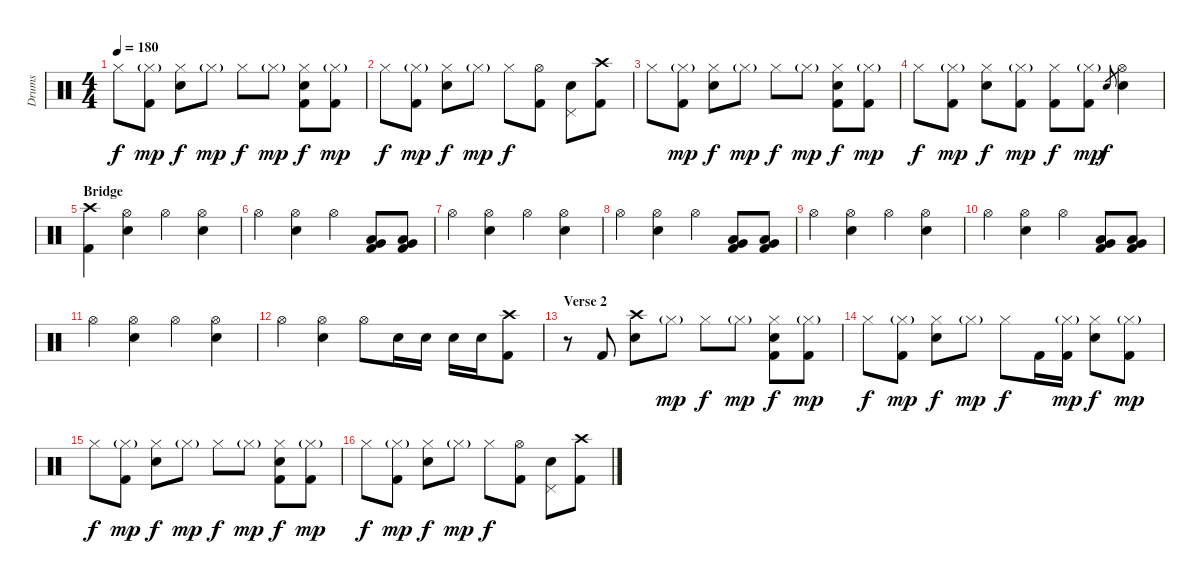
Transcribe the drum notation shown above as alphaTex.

\track ("Drums" "Drums") {instrument percussion}
\staff {score}
\articulation defaults
\ts (4 4)
\tempo 180
\clef neutral
\ks c "Hi-Hat (closed)".8{dy f}
("Hi-Hat (closed)"{g} "Kick (hit) 2").8{dy mp} ("Hi-Hat (closed)" "Snare (hit) 2").8{dy f} "Hi-Hat (closed)"{g}.8{dy mp} "Hi-Hat (closed)".8{dy f} "Hi-Hat (closed)"{g}.8{dy mp} ("Hi-Hat (closed)" "Snare (hit) 2" "Kick (hit) 2").8{dy f} ("Hi-Hat (closed)"{g} "Kick (hit) 2").8{dy mp} |
"Hi-Hat (closed)".8{dy f} ("Hi-Hat (closed)"{g} "Kick (hit) 2").8{dy mp} ("Hi-Hat (closed)" "Snare (hit) 2").8{dy f} "Hi-Hat (closed)"{g}.8{dy mp} "Hi-Hat (closed)".8{dy f} ("Hi-Hat (open)" "Kick (hit) 2").8 ("Pedal Hi-Hat (hit)" "Snare (hit) 2").8 ("Crash high (hit)" "Kick (hit) 2").8 |
"Hi-Hat (closed)".8 ("Hi-Hat (closed)"{g} "Kick (hit) 2").8{dy mp} ("Hi-Hat (closed)" "Snare (hit) 2").8{dy f} "Hi-Hat (closed)"{g}.8{dy mp} "Hi-Hat (closed)".8{dy f} "Hi-Hat (closed)"{g}.8{dy mp} ("Hi-Hat (closed)" "Snare (hit) 2" "Kick (hit) 2").8{dy f} ("Hi-Hat (closed)"{g} "Kick (hit) 2").8{dy mp} |
"Hi-Hat (closed)".8{dy f} ("Hi-Hat (closed)"{g} "Kick (hit) 2").8{dy mp} ("Hi-Hat (closed)" "Snare (hit) 2").8{dy f} ("Hi-Hat (closed)"{g} "Kick (hit) 2").8{dy mp} ("Hi-Hat (closed)" "Kick (hit) 2").8{dy f} ("Hi-Hat (closed)"{g} "Kick (hit) 2").8{dy mp} "Snare (hit) 2".8{gr dy f} ("Hi-Hat (open)" "Snare (hit) 2").4 |
\section ("" "Bridge")
("Crash high (hit)" "Kick (hit) 2").4 ("Hi-Hat (open)" "Snare (hit) 2").4 "Hi-Hat (open)".4 ("Hi-Hat (open)" "Snare (hit) 2").4 |
"Hi-Hat (open)".4 ("Hi-Hat (open)" "Snare (hit) 2").4 "Hi-Hat (open)".4 ("Low Floor Tom (hit)" "Very Low Tom (hit)" "Kick (hit) 2").8 ("Low Floor Tom (hit)" "Very Low Tom (hit)" "Kick (hit) 2").8 |
"Hi-Hat (open)".4 ("Hi-Hat (open)" "Snare (hit) 2").4 "Hi-Hat (open)".4 ("Hi-Hat (open)" "Snare (hit) 2").4 |
"Hi-Hat (open)".4 ("Hi-Hat (open)" "Snare (hit) 2").4 "Hi-Hat (open)".4 ("Low Floor Tom (hit)" "Very Low Tom (hit)" "Kick (hit) 2").8 ("Low Floor Tom (hit)" "Very Low Tom (hit)" "Kick (hit) 2").8 |
"Hi-Hat (open)".4 ("Hi-Hat (open)" "Snare (hit) 2").4 "Hi-Hat (open)".4 ("Hi-Hat (open)" "Snare (hit) 2").4 |
"Hi-Hat (open)".4 ("Hi-Hat (open)" "Snare (hit) 2").4 "Hi-Hat (open)".4 ("Low Floor Tom (hit)" "Very Low Tom (hit)" "Kick (hit) 2").8 ("Low Floor Tom (hit)" "Very Low Tom (hit)" "Kick (hit) 2").8 |
"Hi-Hat (open)".4 ("Hi-Hat (open)" "Snare (hit) 2").4 "Hi-Hat (open)".4 ("Hi-Hat (open)" "Snare (hit) 2").4 |
"Hi-Hat (open)".4 ("Hi-Hat (open)" "Snare (hit) 2").4 "Hi-Hat (open)".8 "Snare (hit) 2".16 "Snare (hit) 2".16 "Snare (hit) 2".16 "Snare (hit) 2".16 ("Crash high (hit)" "Kick (hit) 2").8 |
\section ("" "Verse 2")
r.8 "Kick (hit) 2".8 ("Crash high (hit)" "Snare (hit) 2").8 "Hi-Hat (closed)"{g}.8{dy mp} "Hi-Hat (closed)".8{dy f} "Hi-Hat (closed)"{g}.8{dy mp} ("Hi-Hat (closed)" "Snare (hit) 2" "Kick (hit) 2").8{dy f} ("Hi-Hat (closed)"{g} "Kick (hit) 2").8{dy mp} |
"Hi-Hat (closed)".8{dy f} ("Hi-Hat (closed)"{g} "Kick (hit) 2").8{dy mp} ("Hi-Hat (closed)" "Snare (hit) 2").8{dy f} "Hi-Hat (closed)"{g}.8{dy mp} "Hi-Hat (closed)".8{dy f} "Kick (hit) 2".16 ("Hi-Hat (closed)"{g} "Kick (hit) 2").16{dy mp} ("Hi-Hat (closed)" "Snare (hit) 2").8{dy f} ("Hi-Hat (closed)"{g} "Kick (hit) 2").8{dy mp} |
"Hi-Hat (closed)".8{dy f} ("Hi-Hat (closed)"{g} "Kick (hit) 2").8{dy mp} ("Hi-Hat (closed)" "Snare (hit) 2").8{dy f} "Hi-Hat (closed)"{g}.8{dy mp} "Hi-Hat (closed)".8{dy f} "Hi-Hat (closed)"{g}.8{dy mp} ("Hi-Hat (closed)" "Snare (hit) 2" "Kick (hit) 2").8{dy f} ("Hi-Hat (closed)"{g} "Kick (hit) 2").8{dy mp} |
"Hi-Hat (closed)".8{dy f} ("Hi-Hat (closed)"{g} "Kick (hit) 2").8{dy mp} ("Hi-Hat (closed)" "Snare (hit) 2").8{dy f} "Hi-Hat (closed)"{g}.8{dy mp} "Hi-Hat (closed)".8{dy f} ("Hi-Hat (open)" "Kick (hit) 2").8 ("Pedal Hi-Hat (hit)" "Snare (hit) 2").8 ("Crash high (hit)" "Kick (hit) 2").8
